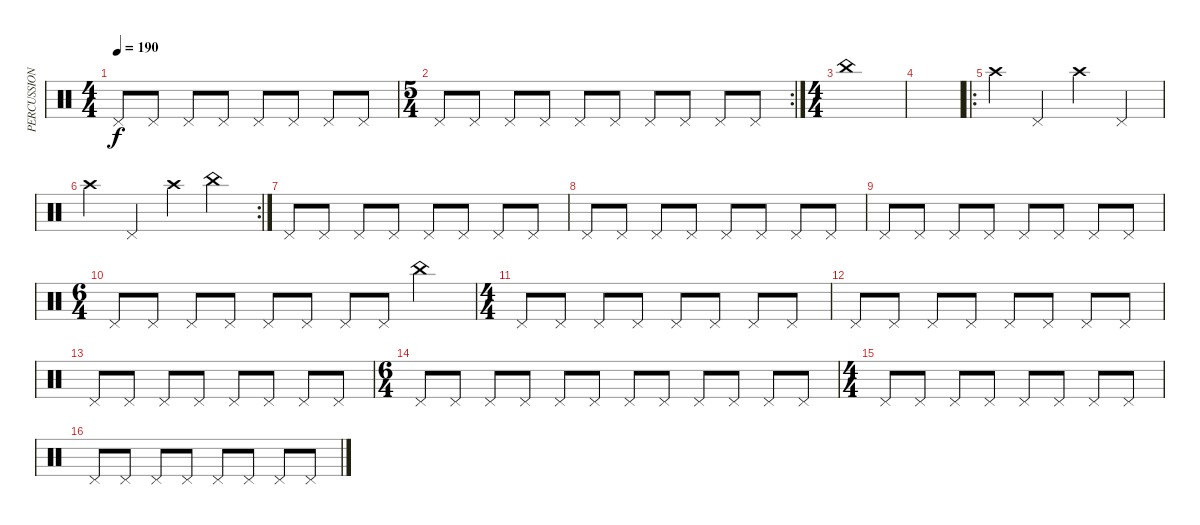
\track ("PERCUSSION" "PERCUSSION") {instrument percussion}
\staff {score}
\articulation defaults
\ts (4 4)
\tempo 190
\clef neutral
\ks c "Pedal Hi-Hat (hit)".8{dy f} "Pedal Hi-Hat (hit)".8 "Pedal Hi-Hat (hit)".8 "Pedal Hi-Hat (hit)".8 "Pedal Hi-Hat (hit)".8 "Pedal Hi-Hat (hit)".8 "Pedal Hi-Hat (hit)".8 "Pedal Hi-Hat (hit)".8
|
\rc 2
\ts (5 4)
"Pedal Hi-Hat (hit)".8 "Pedal Hi-Hat (hit)".8 "Pedal Hi-Hat (hit)".8 "Pedal Hi-Hat (hit)".8 "Pedal Hi-Hat (hit)".8 "Pedal Hi-Hat (hit)".8 "Pedal Hi-Hat (hit)".8 "Pedal Hi-Hat (hit)".8 "Pedal Hi-Hat (hit)".8 "Pedal Hi-Hat (hit)".8 |
\ts (4 4)
"China (hit)".1 |
|
\ro "Crash high (hit)".4 "Pedal Hi-Hat (hit)".4 "Crash high (hit)".4 "Pedal Hi-Hat (hit)".4
|
\rc 2 "Crash high (hit)".4 "Pedal Hi-Hat (hit)".4 "Crash high (hit)".4 "China (hit)".4
|
"Pedal Hi-Hat (hit)".8 "Pedal Hi-Hat (hit)".8 "Pedal Hi-Hat (hit)".8 "Pedal Hi-Hat (hit)".8 "Pedal Hi-Hat (hit)".8 "Pedal Hi-Hat (hit)".8 "Pedal Hi-Hat (hit)".8 "Pedal Hi-Hat (hit)".8 |
"Pedal Hi-Hat (hit)".8 "Pedal Hi-Hat (hit)".8 "Pedal Hi-Hat (hit)".8 "Pedal Hi-Hat (hit)".8 "Pedal Hi-Hat (hit)".8 "Pedal Hi-Hat (hit)".8 "Pedal Hi-Hat (hit)".8 "Pedal Hi-Hat (hit)".8 |
"Pedal Hi-Hat (hit)".8 "Pedal Hi-Hat (hit)".8 "Pedal Hi-Hat (hit)".8 "Pedal Hi-Hat (hit)".8 "Pedal Hi-Hat (hit)".8 "Pedal Hi-Hat (hit)".8 "Pedal Hi-Hat (hit)".8 "Pedal Hi-Hat (hit)".8 |
\ts (6 4)
"Pedal Hi-Hat (hit)".8 "Pedal Hi-Hat (hit)".8 "Pedal Hi-Hat (hit)".8 "Pedal Hi-Hat (hit)".8 "Pedal Hi-Hat (hit)".8 "Pedal Hi-Hat (hit)".8 "Pedal Hi-Hat (hit)".8 "Pedal Hi-Hat (hit)".8 "China (hit)".2 |
\ts (4 4)
"Pedal Hi-Hat (hit)".8 "Pedal Hi-Hat (hit)".8 "Pedal Hi-Hat (hit)".8 "Pedal Hi-Hat (hit)".8 "Pedal Hi-Hat (hit)".8 "Pedal Hi-Hat (hit)".8 "Pedal Hi-Hat (hit)".8 "Pedal Hi-Hat (hit)".8 |
"Pedal Hi-Hat (hit)".8 "Pedal Hi-Hat (hit)".8 "Pedal Hi-Hat (hit)".8 "Pedal Hi-Hat (hit)".8 "Pedal Hi-Hat (hit)".8 "Pedal Hi-Hat (hit)".8 "Pedal Hi-Hat (hit)".8 "Pedal Hi-Hat (hit)".8 |
"Pedal Hi-Hat (hit)".8 "Pedal Hi-Hat (hit)".8 "Pedal Hi-Hat (hit)".8 "Pedal Hi-Hat (hit)".8 "Pedal Hi-Hat (hit)".8 "Pedal Hi-Hat (hit)".8 "Pedal Hi-Hat (hit)".8 "Pedal Hi-Hat (hit)".8 |
\ts (6 4)
"Pedal Hi-Hat (hit)".8 "Pedal Hi-Hat (hit)".8 "Pedal Hi-Hat (hit)".8 "Pedal Hi-Hat (hit)".8 "Pedal Hi-Hat (hit)".8 "Pedal Hi-Hat (hit)".8 "Pedal Hi-Hat (hit)".8 "Pedal Hi-Hat (hit)".8 "Pedal Hi-Hat (hit)".8 "Pedal Hi-Hat (hit)".8 "Pedal Hi-Hat (hit)".8 "Pedal Hi-Hat (hit)".8 |
\ts (4 4)
"Pedal Hi-Hat (hit)".8 "Pedal Hi-Hat (hit)".8 "Pedal Hi-Hat (hit)".8 "Pedal Hi-Hat (hit)".8 "Pedal Hi-Hat (hit)".8 "Pedal Hi-Hat (hit)".8 "Pedal Hi-Hat (hit)".8 "Pedal Hi-Hat (hit)".8 |
"Pedal Hi-Hat (hit)".8 "Pedal Hi-Hat (hit)".8 "Pedal Hi-Hat (hit)".8 "Pedal Hi-Hat (hit)".8 "Pedal Hi-Hat (hit)".8 "Pedal Hi-Hat (hit)".8 "Pedal Hi-Hat (hit)".8 "Pedal Hi-Hat (hit)".8
